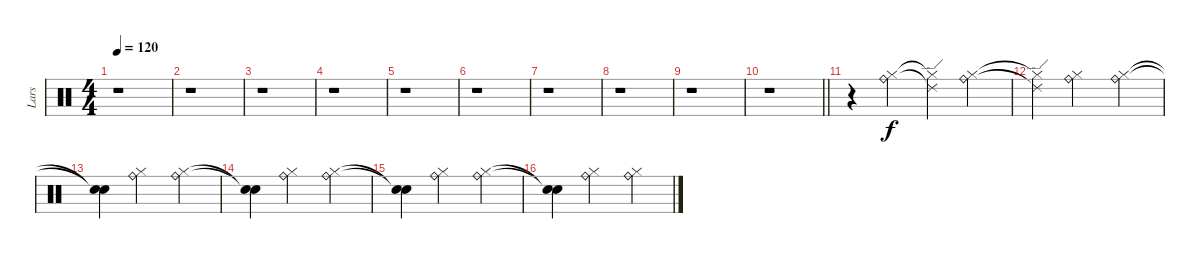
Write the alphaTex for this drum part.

\track ("Lars" "Lars") {instrument percussion}
\staff {score}
\articulation defaults
\ts (4 4)
\tempo 120
\clef neutral
\ks c
r.1{dy f} |
r.1 |
r.1 |
r.1 |
r.1 |
r.1 |
r.1 |
r.1 |
r.1 |
\barLineRight lightlight
r.1 |
r.4 ("Ride (bell)" "Hi-Hat (closed)").4 ("Ride (edge) 2"{t} "Hi-Hat (closed)"{t}).4 ("Ride (bell)" "Hi-Hat (closed)").4 |
("Ride (edge) 2"{t} "Hi-Hat (closed)"{t}).4 ("Ride (bell)" "Hi-Hat (closed)").2 ("Ride (bell)" "Hi-Hat (closed)").4 |
("Snare (hit)"{t} "Snare (hit)"{t}).4 ("Ride (bell)" "Hi-Hat (closed)").2 ("Ride (bell)" "Hi-Hat (closed)").4 |
("Snare (hit)"{t} "Snare (hit)"{t}).4 ("Ride (bell)" "Hi-Hat (closed)").2 ("Ride (bell)" "Hi-Hat (closed)").4 |
("Snare (hit)"{t} "Snare (hit)"{t}).4 ("Ride (bell)" "Hi-Hat (closed)").2 ("Ride (bell)" "Hi-Hat (closed)").4 |
("Snare (hit)"{t} "Snare (hit)"{t}).4 ("Ride (bell)" "Hi-Hat (closed)").2 ("Ride (bell)" "Hi-Hat (closed)").4
